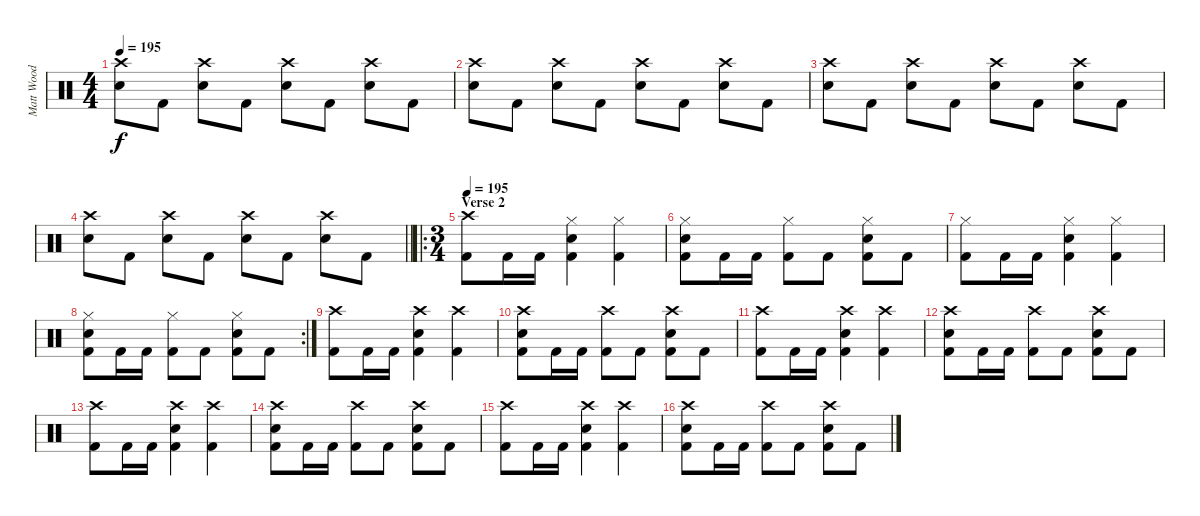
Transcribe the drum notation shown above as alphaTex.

\track ("Matt Wood" "Matt Wood") {instrument percussion}
\staff {score}
\articulation defaults
\ts (4 4)
\tempo 195
\clef neutral
\ks c
("Crash high (hit)" "Snare (hit) 2").8{dy f} "Kick (hit) 2".8 ("Crash high (hit)" "Snare (hit) 2").8 "Kick (hit) 2".8 ("Crash high (hit)" "Snare (hit) 2").8 "Kick (hit) 2".8 ("Crash high (hit)" "Snare (hit) 2").8 "Kick (hit) 2".8 |
("Crash high (hit)" "Snare (hit) 2").8 "Kick (hit) 2".8 ("Crash high (hit)" "Snare (hit) 2").8 "Kick (hit) 2".8 ("Crash high (hit)" "Snare (hit) 2").8 "Kick (hit) 2".8 ("Crash high (hit)" "Snare (hit) 2").8 "Kick (hit) 2".8 |
("Crash high (hit)" "Snare (hit) 2").8 "Kick (hit) 2".8 ("Crash high (hit)" "Snare (hit) 2").8 "Kick (hit) 2".8 ("Crash high (hit)" "Snare (hit) 2").8 "Kick (hit) 2".8 ("Crash high (hit)" "Snare (hit) 2").8 "Kick (hit) 2".8 |
\barLineRight lightlight
("Crash high (hit)" "Snare (hit) 2").8 "Kick (hit) 2".8 ("Crash high (hit)" "Snare (hit) 2").8 "Kick (hit) 2".8 ("Crash high (hit)" "Snare (hit) 2").8 "Kick (hit) 2".8 ("Crash high (hit)" "Snare (hit) 2").8 "Kick (hit) 2".8 |
\ro
\ts (3 4)
\section ("" "Verse 2")
\tempo 195
("Crash high (hit)" "Kick (hit) 2").8 "Kick (hit) 2".16 "Kick (hit) 2".16 ("Hi-Hat (closed)" "Snare (hit) 2" "Kick (hit) 2").4 ("Hi-Hat (closed)" "Kick (hit) 2").4 |
("Hi-Hat (closed)" "Snare (hit) 2" "Kick (hit) 2").8 "Kick (hit) 2".16 "Kick (hit) 2".16 ("Hi-Hat (closed)" "Kick (hit) 2").8 "Kick (hit) 2".8 ("Hi-Hat (closed)" "Snare (hit) 2" "Kick (hit) 2").8 "Kick (hit) 2".8 |
("Hi-Hat (closed)" "Kick (hit) 2").8 "Kick (hit) 2".16 "Kick (hit) 2".16 ("Hi-Hat (closed)" "Snare (hit) 2" "Kick (hit) 2").4 ("Hi-Hat (closed)" "Kick (hit) 2").4 |
\rc 2
("Hi-Hat (closed)" "Snare (hit) 2" "Kick (hit) 2").8 "Kick (hit) 2".16 "Kick (hit) 2".16 ("Hi-Hat (closed)" "Kick (hit) 2").8 "Kick (hit) 2".8 ("Hi-Hat (closed)" "Snare (hit) 2" "Kick (hit) 2").8 "Kick (hit) 2".8 |
("Crash high (hit)" "Kick (hit) 2").8 "Kick (hit) 2".16 "Kick (hit) 2".16 ("Crash high (hit)" "Snare (hit) 2" "Kick (hit) 2").4 ("Crash high (hit)" "Kick (hit) 2").4 |
("Crash high (hit)" "Snare (hit) 2" "Kick (hit) 2").8 "Kick (hit) 2".16 "Kick (hit) 2".16 ("Crash high (hit)" "Kick (hit) 2").8 "Kick (hit) 2".8 ("Crash high (hit)" "Snare (hit) 2" "Kick (hit) 2").8 "Kick (hit) 2".8 |
("Crash high (hit)" "Kick (hit) 2").8 "Kick (hit) 2".16 "Kick (hit) 2".16 ("Crash high (hit)" "Snare (hit) 2" "Kick (hit) 2").4 ("Crash high (hit)" "Kick (hit) 2").4 |
("Crash high (hit)" "Snare (hit) 2" "Kick (hit) 2").8 "Kick (hit) 2".16 "Kick (hit) 2".16 ("Crash high (hit)" "Kick (hit) 2").8 "Kick (hit) 2".8 ("Crash high (hit)" "Snare (hit) 2" "Kick (hit) 2").8 "Kick (hit) 2".8 |
("Crash high (hit)" "Kick (hit) 2").8 "Kick (hit) 2".16 "Kick (hit) 2".16 ("Crash high (hit)" "Snare (hit) 2" "Kick (hit) 2").4 ("Crash high (hit)" "Kick (hit) 2").4 |
("Crash high (hit)" "Snare (hit) 2" "Kick (hit) 2").8 "Kick (hit) 2".16 "Kick (hit) 2".16 ("Crash high (hit)" "Kick (hit) 2").8 "Kick (hit) 2".8 ("Crash high (hit)" "Snare (hit) 2" "Kick (hit) 2").8 "Kick (hit) 2".8 |
("Crash high (hit)" "Kick (hit) 2").8 "Kick (hit) 2".16 "Kick (hit) 2".16 ("Crash high (hit)" "Snare (hit) 2" "Kick (hit) 2").4 ("Crash high (hit)" "Kick (hit) 2").4 |
("Crash high (hit)" "Snare (hit) 2" "Kick (hit) 2").8 "Kick (hit) 2".16 "Kick (hit) 2".16 ("Crash high (hit)" "Kick (hit) 2").8 "Kick (hit) 2".8 ("Crash high (hit)" "Snare (hit) 2" "Kick (hit) 2").8 "Kick (hit) 2".8
